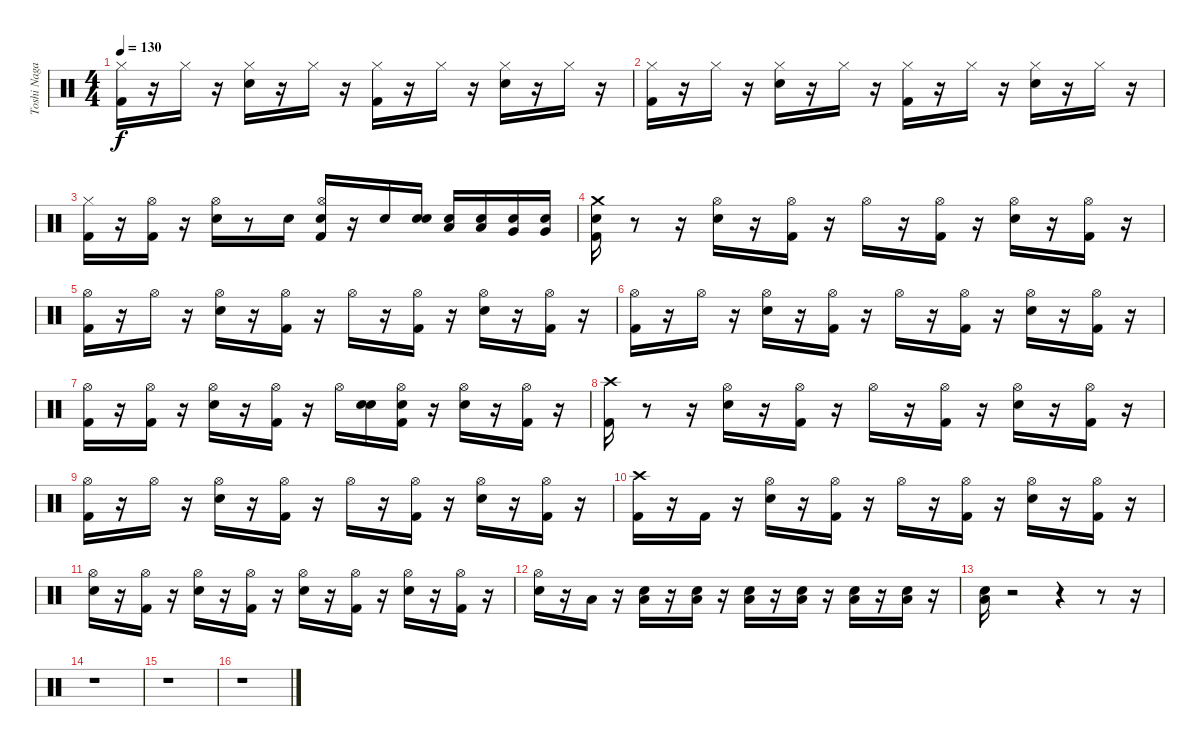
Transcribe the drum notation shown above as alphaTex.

\track ("Toshi Nagai" "Toshi Naga") {instrument percussion}
\staff {score}
\articulation defaults
\ts (4 4)
\tempo 130
\clef neutral
\ks c
("Kick (hit) 2" "Hi-Hat (closed)").16{dy f} r.16 "Hi-Hat (closed)".16 r.16 ("Electric Snare (hit)" "Hi-Hat (closed)").16 r.16 "Hi-Hat (closed)".16 r.16 ("Kick (hit) 2" "Hi-Hat (closed)").16 r.16 "Hi-Hat (closed)".16 r.16 ("Electric Snare (hit)" "Hi-Hat (closed)").16 r.16 "Hi-Hat (closed)".16 r.16 |
("Kick (hit) 2" "Hi-Hat (closed)").16 r.16 "Hi-Hat (closed)".16 r.16 ("Electric Snare (hit)" "Hi-Hat (closed)").16 r.16 "Hi-Hat (closed)".16 r.16 ("Kick (hit) 2" "Hi-Hat (closed)").16 r.16 "Hi-Hat (closed)".16 r.16 ("Electric Snare (hit)" "Hi-Hat (closed)").16 r.16 "Hi-Hat (closed)".16 r.16 |
("Kick (hit) 2" "Hi-Hat (closed)").16 r.16 ("Kick (hit) 2" "Hi-Hat (open)").16 r.16 ("Electric Snare (hit)" "Hi-Hat (open)").16 r.8 "Electric Snare (hit)".16 ("Snare (hit)" "Hi-Hat (open)" "Kick (hit) 2").16 r.16 "Electric Snare (hit)".16 ("Snare (hit)" "Electric Snare (hit)").16 ("Snare (hit)" "Low Tom (hit)").16 ("Snare (hit)" "Low Tom (hit)").16 ("Snare (hit)" "Very Low Tom (hit)").16 ("Snare (hit)" "Very Low Tom (hit)").16 |
("Snare (hit)" "Kick (hit) 2" "Crash medium (hit)").16 r.8 r.16 ("Electric Snare (hit)" "Hi-Hat (open)").16 r.16 ("Kick (hit) 2" "Hi-Hat (open)").16 r.16 "Hi-Hat (open)".16 r.16 ("Kick (hit) 2" "Hi-Hat (open)").16 r.16 ("Electric Snare (hit)" "Hi-Hat (open)").16 r.16 ("Kick (hit) 2" "Hi-Hat (open)").16 r.16 |
("Kick (hit) 2" "Hi-Hat (open)").16 r.16 "Hi-Hat (open)".16 r.16 ("Electric Snare (hit)" "Hi-Hat (open)").16 r.16 ("Kick (hit) 2" "Hi-Hat (open)").16 r.16 "Hi-Hat (open)".16 r.16 ("Kick (hit) 2" "Hi-Hat (open)").16 r.16 ("Electric Snare (hit)" "Hi-Hat (open)").16 r.16 ("Kick (hit) 2" "Hi-Hat (open)").16 r.16 |
("Kick (hit) 2" "Hi-Hat (open)").16 r.16 "Hi-Hat (open)".16 r.16 ("Electric Snare (hit)" "Hi-Hat (open)").16 r.16 ("Kick (hit) 2" "Hi-Hat (open)").16 r.16 "Hi-Hat (open)".16 r.16 ("Kick (hit) 2" "Hi-Hat (open)").16 r.16 ("Electric Snare (hit)" "Hi-Hat (open)").16 r.16 ("Kick (hit) 2" "Hi-Hat (open)").16 r.16 |
("Kick (hit) 2" "Hi-Hat (open)").16 r.16 ("Kick (hit) 2" "Hi-Hat (open)").16 r.16 ("Electric Snare (hit)" "Hi-Hat (open)").16 r.16 ("Kick (hit) 2" "Hi-Hat (open)").16 r.16 "Hi-Hat (open)".16 ("Snare (hit)" "Electric Snare (hit)").16 ("Snare (hit)" "Kick (hit) 2" "Hi-Hat (open)").16 r.16 ("Electric Snare (hit)" "Hi-Hat (open)").16 r.16 ("Kick (hit) 2" "Hi-Hat (open)").16 r.16 |
("Kick (hit) 2" "Crash high (hit)").16 r.8 r.16 ("Electric Snare (hit)" "Hi-Hat (open)").16 r.16 ("Kick (hit) 2" "Hi-Hat (open)").16 r.16 "Hi-Hat (open)".16 r.16 ("Kick (hit) 2" "Hi-Hat (open)").16 r.16 ("Electric Snare (hit)" "Hi-Hat (open)").16 r.16 ("Kick (hit) 2" "Hi-Hat (open)").16 r.16 |
("Kick (hit) 2" "Hi-Hat (open)").16 r.16 "Hi-Hat (open)".16 r.16 ("Electric Snare (hit)" "Hi-Hat (open)").16 r.16 ("Kick (hit) 2" "Hi-Hat (open)").16 r.16 "Hi-Hat (open)".16 r.16 ("Kick (hit) 2" "Hi-Hat (open)").16 r.16 ("Electric Snare (hit)" "Hi-Hat (open)").16 r.16 ("Kick (hit) 2" "Hi-Hat (open)").16 r.16 |
("Kick (hit) 2" "Crash high (hit)").16 r.16 "Kick (hit) 2".16 r.16 ("Hi-Hat (open)" "Electric Snare (hit)").16 r.16 ("Hi-Hat (open)" "Kick (hit) 2").16 r.16 "Hi-Hat (open)".16 r.16 ("Kick (hit) 2" "Hi-Hat (open)").16 r.16 ("Electric Snare (hit)" "Hi-Hat (open)").16 r.16 ("Kick (hit) 2" "Hi-Hat (open)").16 r.16 |
("Hi-Hat (open)" "Electric Snare (hit)").16 r.16 ("Hi-Hat (open)" "Kick (hit) 2").16 r.16 ("Hi-Hat (open)" "Electric Snare (hit)").16 r.16 ("Hi-Hat (open)" "Kick (hit) 2").16 r.16 ("Hi-Hat (open)" "Electric Snare (hit)").16 r.16 ("Hi-Hat (open)" "Kick (hit) 2").16 r.16 ("Hi-Hat (open)" "Electric Snare (hit)").16 r.16 ("Hi-Hat (open)" "Kick (hit) 2").16 r.16 |
("Hi-Hat (open)" "Electric Snare (hit)").16 r.16 "Low Floor Tom (hit)".16 r.16 ("Electric Snare (hit)" "Low Floor Tom (hit)").16 r.16 ("Electric Snare (hit)" "Low Floor Tom (hit)").16 r.16 ("Electric Snare (hit)" "Low Floor Tom (hit)").16 r.16 ("Electric Snare (hit)" "Low Floor Tom (hit)").16 r.16 ("Electric Snare (hit)" "Low Floor Tom (hit)").16 r.16 ("Electric Snare (hit)" "Low Floor Tom (hit)").16 r.16 |
("Electric Snare (hit)" "Low Floor Tom (hit)").16 r.2 r.4 r.8 r.16 |
r.1 |
r.1 |
r.1
